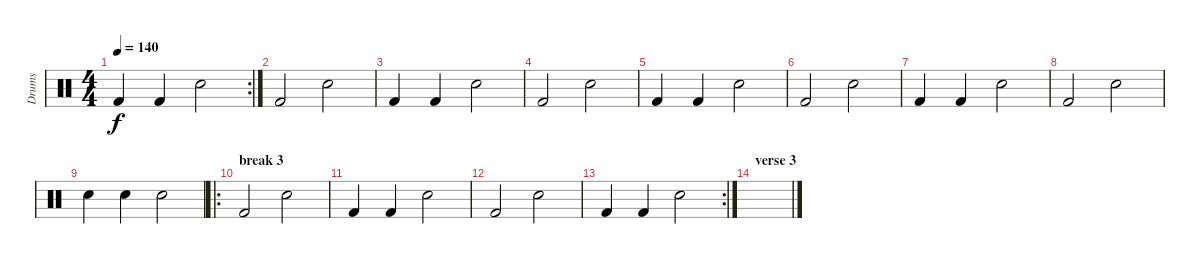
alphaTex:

\track ("Drums" "Drums") {instrument percussion}
\staff {score}
\articulation defaults
\rc 2
\ts (4 4)
\tempo 140
\clef neutral
\ks c "Kick (hit) 2".4{dy f} "Kick (hit) 2".4 "Snare (hit) 2".2
|
"Kick (hit) 2".2 "Snare (hit) 2".2 |
"Kick (hit) 2".4 "Kick (hit) 2".4 "Snare (hit) 2".2 |
"Kick (hit) 2".2 "Snare (hit) 2".2 |
"Kick (hit) 2".4 "Kick (hit) 2".4 "Snare (hit) 2".2 |
"Kick (hit) 2".2 "Snare (hit) 2".2 |
"Kick (hit) 2".4 "Kick (hit) 2".4 "Snare (hit) 2".2 |
"Kick (hit) 2".2 "Snare (hit) 2".2 |
"Snare (hit) 2".4 "Snare (hit) 2".4 "Snare (hit) 2".2 |
\ro
\section ("" "break 3")
"Kick (hit) 2".2 "Snare (hit) 2".2 |
"Kick (hit) 2".4 "Kick (hit) 2".4 "Snare (hit) 2".2 |
"Kick (hit) 2".2 "Snare (hit) 2".2 |
\rc 2 "Kick (hit) 2".4 "Kick (hit) 2".4 "Snare (hit) 2".2
|
\section ("" "verse 3")
